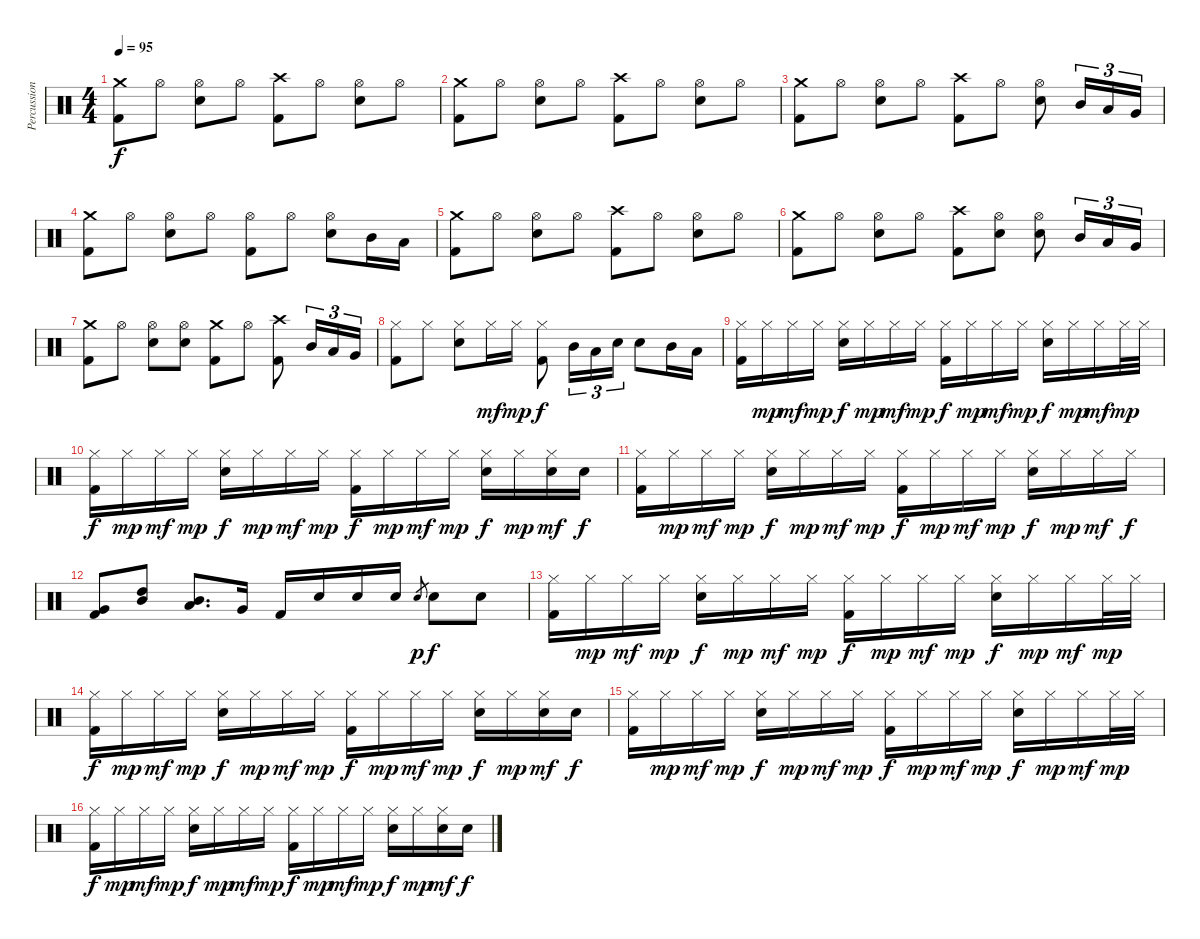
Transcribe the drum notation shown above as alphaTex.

\track ("Percussion" "Percussion") {instrument percussion}
\staff {score}
\articulation defaults
\ts (4 4)
\tempo 95
\clef neutral
\ks c
("Crash medium (hit)" "Kick (hit) 2").8{dy f} "Hi-Hat (open)".8 ("Hi-Hat (open)" "Snare (hit) 2").8 "Hi-Hat (open)".8 ("Crash high (hit)" "Kick (hit) 2").8 "Hi-Hat (open)".8 ("Hi-Hat (open)" "Snare (hit) 2").8 "Hi-Hat (open)".8 |
("Crash medium (hit)" "Kick (hit) 2").8 "Hi-Hat (open)".8 ("Hi-Hat (open)" "Snare (hit) 2").8 "Hi-Hat (open)".8 ("Crash high (hit)" "Kick (hit) 2").8 "Hi-Hat (open)".8 ("Hi-Hat (open)" "Snare (hit) 2").8 "Hi-Hat (open)".8 |
("Crash medium (hit)" "Kick (hit) 2").8 "Hi-Hat (open)".8 ("Hi-Hat (open)" "Snare (hit) 2").8 "Hi-Hat (open)".8 ("Crash high (hit)" "Kick (hit) 2").8 "Hi-Hat (open)".8 ("Hi-Hat (open)" "Snare (hit) 2").8 "Mid Tom (hit)".16{tu (3 2)} "Low Tom (hit)".16{tu (3 2)} "Very Low Tom (hit)".16{tu (3 2)} |
("Crash medium (hit)" "Kick (hit) 2").8 "Hi-Hat (open)".8 ("Hi-Hat (open)" "Snare (hit) 2").8 "Hi-Hat (open)".8 ("Hi-Hat (open)" "Kick (hit) 2").8 "Hi-Hat (open)".8 ("Hi-Hat (open)" "Snare (hit) 2").8 "Mid Tom (hit)".16 "Low Tom (hit)".16 |
("Crash medium (hit)" "Kick (hit) 2").8 "Hi-Hat (open)".8 ("Hi-Hat (open)" "Snare (hit) 2").8 "Hi-Hat (open)".8 ("Crash high (hit)" "Kick (hit) 2").8 "Hi-Hat (open)".8 ("Hi-Hat (open)" "Snare (hit) 2").8 "Hi-Hat (open)".8 |
("Crash medium (hit)" "Kick (hit) 2").8 "Hi-Hat (open)".8 ("Hi-Hat (open)" "Snare (hit) 2").8 "Hi-Hat (open)".8 ("Crash high (hit)" "Kick (hit) 2").8 ("Hi-Hat (open)" "Snare (hit) 2").8 ("Hi-Hat (open)" "Snare (hit) 2").8 "Mid Tom (hit)".16{tu (3 2)} "Low Tom (hit)".16{tu (3 2)} "Very Low Tom (hit)".16{tu (3 2)} |
("Crash medium (hit)" "Kick (hit) 2").8 "Hi-Hat (open)".8 ("Hi-Hat (open)" "Snare (hit) 2").8 ("Hi-Hat (open)" "Snare (hit) 2").8 ("Crash medium (hit)" "Kick (hit) 2").8 "Hi-Hat (open)".8 ("Crash high (hit)" "Kick (hit) 2").8 "Mid Tom (hit)".16{tu (3 2)} "Low Tom (hit)".16{tu (3 2)} "Very Low Tom (hit)".16{tu (3 2)} |
("Hi-Hat (closed)" "Kick (hit) 2").8 "Hi-Hat (closed)".8 ("Hi-Hat (closed)" "Snare (hit) 2").8 "Hi-Hat (closed)".16{dy mf} "Hi-Hat (closed)".16{dy mp} ("Hi-Hat (closed)" "Kick (hit) 2").8{dy f} "Mid Tom (hit)".16{tu (3 2)} "Low Tom (hit)".16{tu (3 2)} "Snare (hit) 2".16{tu (3 2)} "Snare (hit) 2".8 "Mid Tom (hit)".16 "Low Tom (hit)".16 |
("Hi-Hat (closed)" "Kick (hit) 2").16 "Hi-Hat (closed)".16{dy mp} "Hi-Hat (closed)".16{dy mf} "Hi-Hat (closed)".16{dy mp} ("Hi-Hat (closed)" "Snare (hit) 2").16{dy f} "Hi-Hat (closed)".16{dy mp} "Hi-Hat (closed)".16{dy mf} "Hi-Hat (closed)".16{dy mp} ("Hi-Hat (closed)" "Kick (hit) 2").16{dy f} "Hi-Hat (closed)".16{dy mp} "Hi-Hat (closed)".16{dy mf} "Hi-Hat (closed)".16{dy mp} ("Hi-Hat (closed)" "Snare (hit) 2").16{dy f} "Hi-Hat (closed)".16{dy mp} "Hi-Hat (closed)".16{dy mf} "Hi-Hat (closed)".32{dy mp} "Hi-Hat (closed)".32 |
("Hi-Hat (closed)" "Kick (hit) 2").16{dy f} "Hi-Hat (closed)".16{dy mp} "Hi-Hat (closed)".16{dy mf} "Hi-Hat (closed)".16{dy mp} ("Hi-Hat (closed)" "Snare (hit) 2").16{dy f} "Hi-Hat (closed)".16{dy mp} "Hi-Hat (closed)".16{dy mf} "Hi-Hat (closed)".16{dy mp} ("Hi-Hat (closed)" "Kick (hit) 2").16{dy f} "Hi-Hat (closed)".16{dy mp} "Hi-Hat (closed)".16{dy mf} "Hi-Hat (closed)".16{dy mp} ("Hi-Hat (closed)" "Snare (hit) 2").16{dy f} "Hi-Hat (closed)".16{dy mp} ("Hi-Hat (closed)" "Snare (hit) 2").16{dy mf} "Snare (hit) 2".16{dy f} |
("Hi-Hat (closed)" "Kick (hit) 2").16 "Hi-Hat (closed)".16{dy mp} "Hi-Hat (closed)".16{dy mf} "Hi-Hat (closed)".16{dy mp} ("Hi-Hat (closed)" "Snare (hit) 2").16{dy f} "Hi-Hat (closed)".16{dy mp} "Hi-Hat (closed)".16{dy mf} "Hi-Hat (closed)".16{dy mp} ("Hi-Hat (closed)" "Kick (hit) 2").16{dy f} "Hi-Hat (closed)".16{dy mp} "Hi-Hat (closed)".16{dy mf} "Hi-Hat (closed)".16{dy mp} ("Hi-Hat (closed)" "Snare (hit) 2").16{dy f} "Hi-Hat (closed)".16{dy mp} "Hi-Hat (closed)".16{dy mf} "Hi-Hat (closed)".16{dy f} |
("Very Low Tom (hit)" "Kick (hit) 2").8 ("High Tom (hit)" "Mid Tom (hit)").8 ("Mid Tom (hit)" "Low Tom (hit)").8{d} "Very Low Tom (hit)".16 "Kick (hit) 2".16 "Snare (hit) 2".16 "Snare (hit) 2".16 "Snare (hit) 2".16 "Snare (hit) 2".8{gr dy p} "Snare (hit) 2".8{dy f} "Snare (hit) 2".8 |
("Hi-Hat (closed)" "Kick (hit) 2").16 "Hi-Hat (closed)".16{dy mp} "Hi-Hat (closed)".16{dy mf} "Hi-Hat (closed)".16{dy mp} ("Hi-Hat (closed)" "Snare (hit) 2").16{dy f} "Hi-Hat (closed)".16{dy mp} "Hi-Hat (closed)".16{dy mf} "Hi-Hat (closed)".16{dy mp} ("Hi-Hat (closed)" "Kick (hit) 2").16{dy f} "Hi-Hat (closed)".16{dy mp} "Hi-Hat (closed)".16{dy mf} "Hi-Hat (closed)".16{dy mp} ("Hi-Hat (closed)" "Snare (hit) 2").16{dy f} "Hi-Hat (closed)".16{dy mp} "Hi-Hat (closed)".16{dy mf} "Hi-Hat (closed)".32{dy mp} "Hi-Hat (closed)".32 |
("Hi-Hat (closed)" "Kick (hit) 2").16{dy f} "Hi-Hat (closed)".16{dy mp} "Hi-Hat (closed)".16{dy mf} "Hi-Hat (closed)".16{dy mp} ("Hi-Hat (closed)" "Snare (hit) 2").16{dy f} "Hi-Hat (closed)".16{dy mp} "Hi-Hat (closed)".16{dy mf} "Hi-Hat (closed)".16{dy mp} ("Hi-Hat (closed)" "Kick (hit) 2").16{dy f} "Hi-Hat (closed)".16{dy mp} "Hi-Hat (closed)".16{dy mf} "Hi-Hat (closed)".16{dy mp} ("Hi-Hat (closed)" "Snare (hit) 2").16{dy f} "Hi-Hat (closed)".16{dy mp} ("Hi-Hat (closed)" "Snare (hit) 2").16{dy mf} "Snare (hit) 2".16{dy f} |
("Hi-Hat (closed)" "Kick (hit) 2").16 "Hi-Hat (closed)".16{dy mp} "Hi-Hat (closed)".16{dy mf} "Hi-Hat (closed)".16{dy mp} ("Hi-Hat (closed)" "Snare (hit) 2").16{dy f} "Hi-Hat (closed)".16{dy mp} "Hi-Hat (closed)".16{dy mf} "Hi-Hat (closed)".16{dy mp} ("Hi-Hat (closed)" "Kick (hit) 2").16{dy f} "Hi-Hat (closed)".16{dy mp} "Hi-Hat (closed)".16{dy mf} "Hi-Hat (closed)".16{dy mp} ("Hi-Hat (closed)" "Snare (hit) 2").16{dy f} "Hi-Hat (closed)".16{dy mp} "Hi-Hat (closed)".16{dy mf} "Hi-Hat (closed)".32{dy mp} "Hi-Hat (closed)".32 |
("Hi-Hat (closed)" "Kick (hit) 2").16{dy f} "Hi-Hat (closed)".16{dy mp} "Hi-Hat (closed)".16{dy mf} "Hi-Hat (closed)".16{dy mp} ("Hi-Hat (closed)" "Snare (hit) 2").16{dy f} "Hi-Hat (closed)".16{dy mp} "Hi-Hat (closed)".16{dy mf} "Hi-Hat (closed)".16{dy mp} ("Hi-Hat (closed)" "Kick (hit) 2").16{dy f} "Hi-Hat (closed)".16{dy mp} "Hi-Hat (closed)".16{dy mf} "Hi-Hat (closed)".16{dy mp} ("Hi-Hat (closed)" "Snare (hit) 2").16{dy f} "Hi-Hat (closed)".16{dy mp} ("Hi-Hat (closed)" "Snare (hit) 2").16{dy mf} "Snare (hit) 2".16{dy f}
